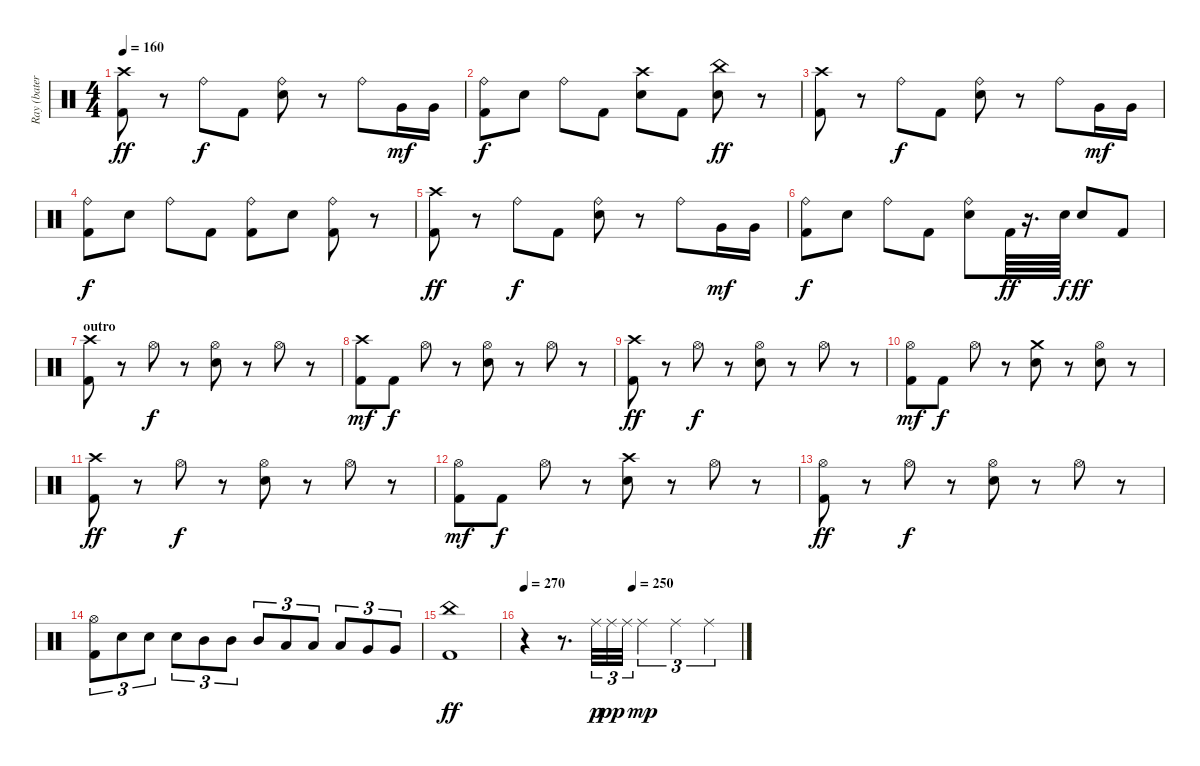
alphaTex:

\track ("Ray (batería)" "Ray (bater") {instrument percussion}
\staff {score}
\articulation defaults
\ts (4 4)
\tempo 160
\clef neutral
\ks c
("Crash high (hit)" "Kick (hit) 2").8{dy ff} r.8 "Ride (bell)".8{dy f} "Kick (hit) 2".8 ("Ride (bell)" "Snare (hit) 2").8 r.8 "Ride (bell)".8 "Very Low Tom (hit)".16{dy mf} "Very Low Tom (hit)".16 |
("Ride (bell)" "Kick (hit) 2").8{dy f} "Snare (hit) 2".8 "Ride (bell)".8 "Kick (hit) 2".8 ("Crash high (hit)" "Snare (hit) 2").8 "Kick (hit) 2".8 ("China (hit)" "Snare (hit) 2").8{dy ff} r.8 |
("Crash high (hit)" "Kick (hit) 2").8 r.8 "Ride (bell)".8{dy f} "Kick (hit) 2".8 ("Ride (bell)" "Snare (hit) 2").8 r.8 "Ride (bell)".8 "Very Low Tom (hit)".16{dy mf} "Very Low Tom (hit)".16 |
("Ride (bell)" "Kick (hit) 2").8{dy f} "Snare (hit) 2".8 "Ride (bell)".8 "Kick (hit) 2".8 ("Ride (bell)" "Kick (hit) 2").8 "Snare (hit) 2".8 ("Ride (bell)" "Kick (hit) 2").8 r.8 |
("Crash high (hit)" "Kick (hit) 2").8{dy ff} r.8 "Ride (bell)".8{dy f} "Kick (hit) 2".8 ("Ride (bell)" "Snare (hit) 2").8 r.8 "Ride (bell)".8 "Very Low Tom (hit)".16{dy mf} "Very Low Tom (hit)".16 |
("Ride (bell)" "Kick (hit) 2").8{dy f} "Snare (hit) 2".8 "Ride (bell)".8 "Kick (hit) 2".8 ("Ride (bell)" "Snare (hit) 2").8 "Kick (hit) 2".64{dy ff} r.16{d} "Snare (hit) 2".64{dy f} "Snare (hit) 2".8{dy ff} "Kick (hit) 2".8 |
\section ("" "outro")
("Crash high (hit)" "Kick (hit) 2").8 r.8 "Hi-Hat (open)".8{dy f} r.8 ("Hi-Hat (open)" "Snare (hit) 2").8 r.8 "Hi-Hat (open)".8 r.8 |
("Crash high (hit)" "Kick (hit) 2").8{dy mf} "Kick (hit) 2".8{dy f} "Hi-Hat (open)".8 r.8 ("Hi-Hat (open)" "Snare (hit) 2").8 r.8 "Hi-Hat (open)".8 r.8 |
("Crash high (hit)" "Kick (hit) 2").8{dy ff} r.8 "Hi-Hat (open)".8{dy f} r.8 ("Hi-Hat (open)" "Snare (hit) 2").8 r.8 "Hi-Hat (open)".8 r.8 |
("Hi-Hat (open)" "Kick (hit) 2").8{dy mf} "Kick (hit) 2".8{dy f} "Hi-Hat (open)".8 r.8 ("Crash medium (hit)" "Snare (hit) 2").8 r.8 ("Hi-Hat (open)" "Snare (hit) 2").8 r.8 |
("Crash high (hit)" "Kick (hit) 2").8{dy ff} r.8 "Hi-Hat (open)".8{dy f} r.8 ("Hi-Hat (open)" "Snare (hit) 2").8 r.8 "Hi-Hat (open)".8 r.8 |
("Hi-Hat (open)" "Kick (hit) 2").8{dy mf} "Kick (hit) 2".8{dy f} "Hi-Hat (open)".8 r.8 ("Crash high (hit)" "Snare (hit) 2").8 r.8 "Hi-Hat (open)".8 r.8 |
("Hi-Hat (open)" "Kick (hit) 2").8{dy ff} r.8 "Hi-Hat (open)".8{dy f} r.8 ("Hi-Hat (open)" "Snare (hit) 2").8 r.8 "Hi-Hat (open)".8 r.8 |
("Hi-Hat (open)" "Kick (hit) 2").8{tu (3 2)} "Snare (hit) 2".8{tu (3 2)} "Snare (hit) 2".8{tu (3 2)} "Snare (hit) 2".8{tu (3 2)} "Mid Tom (hit)".8{tu (3 2)} "Mid Tom (hit)".8{tu (3 2)} "Mid Tom (hit)".8{tu (3 2)} "Low Tom (hit)".8{tu (3 2)} "Low Tom (hit)".8{tu (3 2)} "Low Tom (hit)".8{tu (3 2)} "Very Low Tom (hit)".8{tu (3 2)} "Very Low Tom (hit)".8{tu (3 2)} |
("China (hit)" "Kick (hit) 2").1{dy ff} |
\tempo 270
\tempo (250 0.5)
r.4 r.8{d} "Ride (middle)".32{tu (3 2) dy p} "Ride (middle)".32{tu (3 2) dy pp} "Ride (middle)".32{tu (3 2)} "Ride (middle)".4{tu (3 2) dy mp} "Ride (middle)".4{tu (3 2)} "Ride (middle)".4{tu (3 2)}
